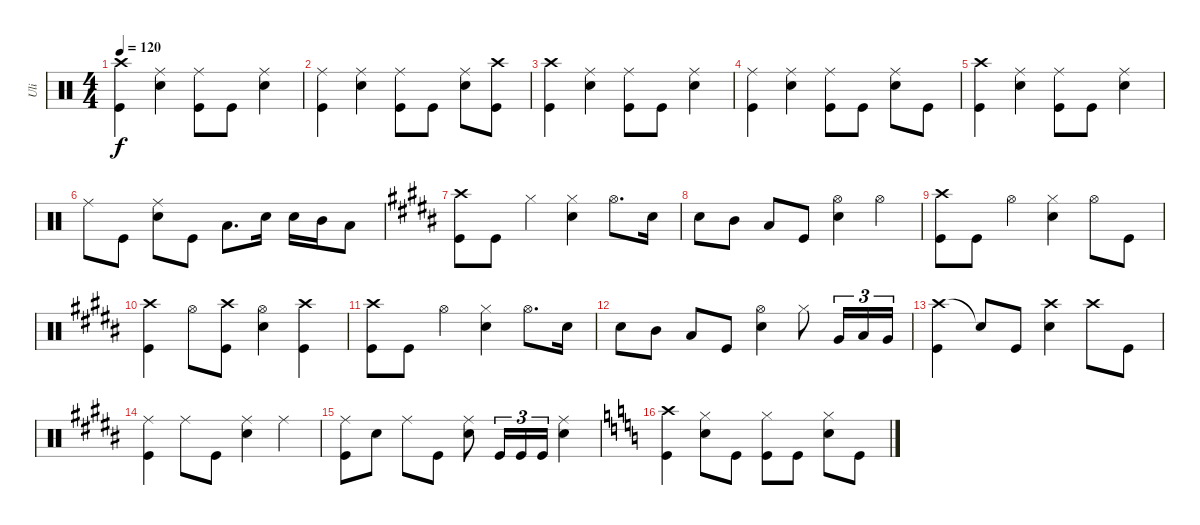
\track ("Uli" "Uli") {instrument percussion}
\staff {score}
\articulation defaults
\ts (4 4)
\tempo 120
\clef neutral
\ks aminor
("Crash high (hit)" "Kick (hit)").4{dy f} ("Ride (middle)" "Snare (hit) 2").4 ("Ride (middle)" "Kick (hit)").8 "Kick (hit)".8 ("Ride (middle)" "Snare (hit) 2").4 |
("Ride (middle)" "Kick (hit)").4 ("Ride (middle)" "Snare (hit) 2").4 ("Ride (middle)" "Kick (hit)").8 "Kick (hit)".8 ("Ride (middle)" "Snare (hit) 2").8 ("Crash high (hit)" "Kick (hit)").8 |
("Crash high (hit)" "Kick (hit)").4 ("Ride (middle)" "Snare (hit) 2").4 ("Ride (middle)" "Kick (hit)").8 "Kick (hit)".8 ("Ride (middle)" "Snare (hit) 2").4 |
("Ride (middle)" "Kick (hit)").4 ("Ride (middle)" "Snare (hit) 2").4 ("Ride (middle)" "Kick (hit)").8 "Kick (hit)".8 ("Ride (middle)" "Snare (hit) 2").8 "Kick (hit)".8 |
("Crash high (hit)" "Kick (hit)").4 ("Ride (middle)" "Snare (hit) 2").4 ("Ride (middle)" "Kick (hit)").8 "Kick (hit)".8 ("Ride (middle)" "Snare (hit) 2").4 |
"Ride (middle)".8 "Kick (hit)".8 ("Ride (middle)" "Snare (hit) 2").8 "Kick (hit)".8 "Low Tom (hit)".8{d} "Snare (hit) 2".16 "Snare (hit) 2".16 "Mid Tom (hit)".16 "Low Tom (hit)".8 |
\ks g#minor
("Crash high (hit)" "Kick (hit)").8 "Kick (hit)".8 "Hi-Hat (closed)".4 ("Hi-Hat (closed)" "Snare (hit) 2").4 "Hi-Hat (open)".8{d} "Snare (hit) 2".16 |
"Snare (hit) 2".8 "Mid Tom (hit)".8 "Low Tom (hit)".8 "Kick (hit)".8 ("Hi-Hat (open)" "Snare (hit) 2").4 "Hi-Hat (open)".4 |
("Crash high (hit)" "Kick (hit)").8 "Kick (hit)".8 "Hi-Hat (open)".4 ("Hi-Hat (closed)" "Snare (hit) 2").4 "Hi-Hat (open)".8 "Kick (hit)".8 |
("Crash high (hit)" "Kick (hit)").4 "Hi-Hat (open)".8 ("Crash high (hit)" "Kick (hit)").8 ("Hi-Hat (open)" "Snare (hit) 2").4 ("Crash high (hit)" "Kick (hit)").4 |
("Crash high (hit)" "Kick (hit)").8 "Kick (hit)".8 "Hi-Hat (open)".4 ("Hi-Hat (closed)" "Snare (hit) 2").4 "Hi-Hat (open)".8{d} "Snare (hit) 2".16 |
"Snare (hit) 2".8 "Mid Tom (hit)".8 "Low Tom (hit)".8 "Kick (hit)".8 ("Hi-Hat (open)" "Snare (hit) 2").4 "Hi-Hat (closed)".8 "Very Low Tom (hit)".16{tu (3 2)} "Low Tom (hit)".16{tu (3 2)} "Very Low Tom (hit)".16{tu (3 2)} |
("Crash high (hit)" "Kick (hit)").4 "Snare (hit)"{t}.8 "Kick (hit)".8 ("Crash high (hit)" "Snare (hit) 2").4 "Crash high (hit)".8 "Kick (hit)".8 |
("Ride (middle)" "Kick (hit)").4 "Ride (middle)".8 "Kick (hit)".8 ("Ride (middle)" "Snare (hit) 2").4 "Ride (middle)".4 |
("Ride (middle)" "Kick (hit)").8 "Snare (hit) 2".8 "Ride (middle)".8 "Kick (hit)".8 ("Ride (middle)" "Snare (hit) 2").8 "Kick (hit)".16{tu (3 2)} "Kick (hit)".16{tu (3 2)} "Kick (hit)".16{tu (3 2)} ("Ride (middle)" "Snare (hit) 2").4 |
\ks aminor
("Crash high (hit)" "Kick (hit)").4 ("Hi-Hat (closed)" "Snare (hit) 2").8 "Kick (hit)".8 ("Hi-Hat (closed)" "Kick (hit)").8 "Kick (hit)".8 ("Hi-Hat (closed)" "Snare (hit) 2").8 "Kick (hit)".8
